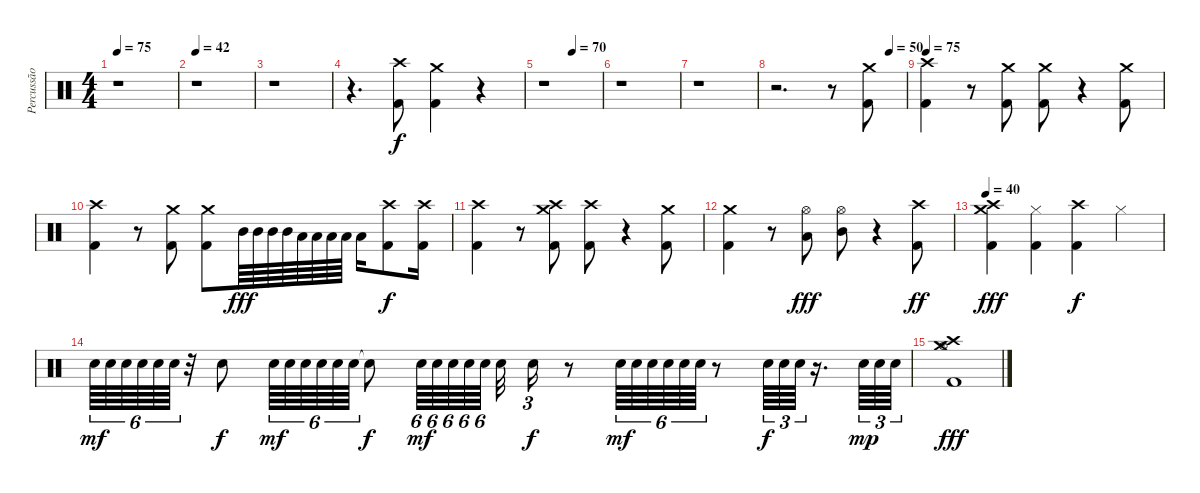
\track ("Percussão" "Percussão") {instrument percussion}
\staff {score}
\articulation defaults
\ts (4 4)
\tempo 75
\clef neutral
\ks c
r.1{dy fff} |
\tempo 42
r.1 |
r.1 |
r.4{d} ("Crash high (hit)" "Kick (hit) 2").8{dy f} ("Crash medium (hit)" "Kick (hit) 2").4 r.4 |
\tempo (70 0.5)
r.1 |
r.1 |
r.1 |
\tempo (50 0.875)
r.2{d} r.8 ("Kick (hit) 2" "Crash medium (hit)").8 |
\tempo 75
("Kick (hit) 2" "Crash high (hit)").4 r.8 ("Crash medium (hit)" "Kick (hit) 2").8 ("Crash medium (hit)" "Kick (hit) 2").8 r.4 ("Kick (hit) 2" "Crash medium (hit)").8 |
("Kick (hit) 2" "Crash high (hit)").4 r.8 ("Kick (hit) 2" "Crash medium (hit)").8 ("Kick (hit) 2" "Crash medium (hit)").8 "Mid Tom (hit)".64{dy fff} "Mid Tom (hit)".64 "Mid Tom (hit)".64 "Mid Tom (hit)".64 "Low Tom (hit)".64 "Low Tom (hit)".64 "Low Tom (hit)".64 "Low Tom (hit)".64 "Low Tom (hit)".16 ("Kick (hit) 2" "Crash high (hit)").8{dy f} ("Crash high (hit)" "Kick (hit) 2").16 |
("Kick (hit) 2" "Crash high (hit)").4 r.8 ("Crash medium (hit)" "Kick (hit) 2" "Crash high (hit)").8 ("Kick (hit) 2" "Crash high (hit)").8 r.4 ("Kick (hit) 2" "Crash medium (hit)").8 |
("Kick (hit) 2" "Crash medium (hit)").4 r.8 ("Low Tom (hit)" "Hi-Hat (open)").8{dy fff} ("Mid Tom (hit)" "Hi-Hat (open)").8 r.4 ("Crash high (hit)" "Kick (hit) 2").8{dy ff} |
\tempo 40
("Crash medium (hit)" "Crash high (hit)" "Kick (hit) 2").4{dy fff} ("Hi-Hat (closed)" "Kick (hit) 2").4 ("Crash high (hit)" "Kick (hit) 2").4{dy f} "Hi-Hat (closed)".4 |
"Snare (hit) 2".64{tu (6 4) dy mf} "Snare (hit) 2".64{tu (6 4)} "Snare (hit) 2".64{tu (6 4)} "Snare (hit) 2".64{tu (6 4)} "Snare (hit) 2".64{tu (6 4)} "Snare (hit) 2".64{tu (6 4)} r.32 "Snare (hit) 2".8{dy f} "Snare (hit) 2".64{tu (6 4) dy mf} "Snare (hit) 2".64{tu (6 4)} "Snare (hit) 2".64{tu (6 4)} "Snare (hit) 2".64{tu (6 4)} "Snare (hit) 2".64{tu (6 4)} "Snare (hit) 2".64{tu (6 4)} "Snare (hit)"{t}.8{dy f} "Snare (hit) 2".64{tu (6 4) dy mf} "Snare (hit) 2".64{tu (6 4)} "Snare (hit) 2".64{tu (6 4)} "Snare (hit) 2".64{tu (6 4)} "Snare (hit) 2".64{tu (6 4)} "Snare (hit) 2".32 "Snare (hit) 2".16{tu (3 2) dy f} r.8 "Snare (hit) 2".64{tu (6 4) dy mf} "Snare (hit) 2".64{tu (6 4)} "Snare (hit) 2".64{tu (6 4)} "Snare (hit) 2".64{tu (6 4)} "Snare (hit) 2".64{tu (6 4)} "Snare (hit) 2".64{tu (6 4)} r.8 "Snare (hit) 2".64{tu (3 2) dy f} "Snare (hit) 2".64{tu (3 2)} "Snare (hit) 2".64{tu (3 2)} r.16{d} "Snare (hit) 2".64{tu (3 2) dy mp} "Snare (hit) 2".64{tu (3 2)} "Snare (hit) 2".64{tu (3 2)} |
("Kick (hit) 2" "Crash high (hit)" "Hi-Hat (open)" "Crash medium (hit)").1{dy fff}
